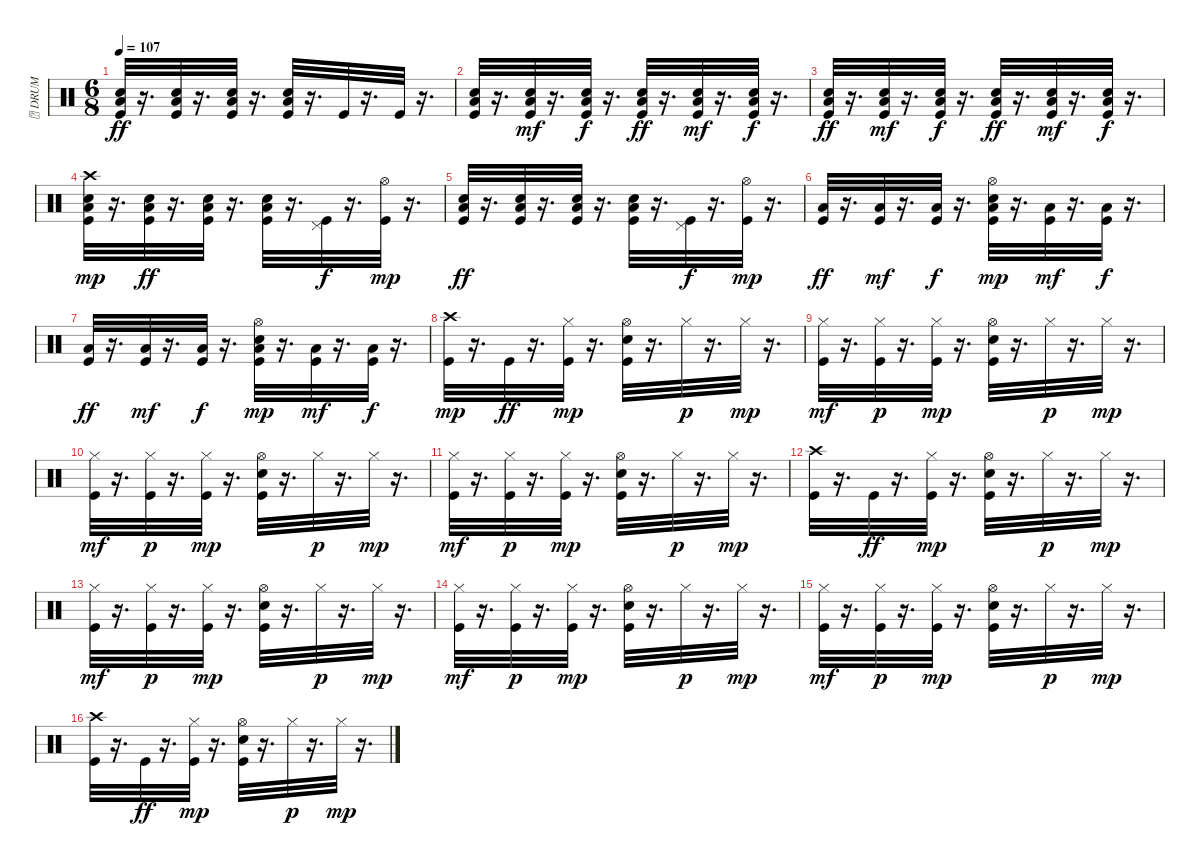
\track ("\t DRUM" "\t DRUM") {instrument percussion}
\staff {score}
\articulation defaults
\ts (6 8)
\tempo 107
\clef neutral
\ks c
("Kick (hit)" "Electric Snare (hit)" "Low Floor Tom (hit)").32{dy ff} r.16{d} ("Kick (hit)" "Electric Snare (hit)" "Low Floor Tom (hit)").32 r.16{d} ("Kick (hit)" "Electric Snare (hit)" "Low Floor Tom (hit)").32 r.16{d} ("Kick (hit)" "Electric Snare (hit)" "Low Floor Tom (hit)").32 r.16{d} "Kick (hit)".32 r.16{d} "Kick (hit)".32 r.16{d} |
("Kick (hit)" "Electric Snare (hit)" "Low Floor Tom (hit)").32 r.16{d} ("Kick (hit)" "Electric Snare (hit)" "Low Floor Tom (hit)").32{dy mf} r.16{d} ("Kick (hit)" "Electric Snare (hit)" "Low Floor Tom (hit)").32{dy f} r.16{d} ("Kick (hit)" "Electric Snare (hit)" "Low Floor Tom (hit)").32{dy ff} r.16{d} ("Kick (hit)" "Electric Snare (hit)" "Low Floor Tom (hit)").32{dy mf} r.16{d} ("Kick (hit)" "Electric Snare (hit)" "Low Floor Tom (hit)").32{dy f} r.16{d} |
("Kick (hit)" "Electric Snare (hit)" "Low Floor Tom (hit)").32{dy ff} r.16{d} ("Kick (hit)" "Electric Snare (hit)" "Low Floor Tom (hit)").32{dy mf} r.16{d} ("Kick (hit)" "Electric Snare (hit)" "Low Floor Tom (hit)").32{dy f} r.16{d} ("Kick (hit)" "Electric Snare (hit)" "Low Floor Tom (hit)").32{dy ff} r.16{d} ("Kick (hit)" "Electric Snare (hit)" "Low Floor Tom (hit)").32{dy mf} r.16{d} ("Kick (hit)" "Electric Snare (hit)" "Low Floor Tom (hit)").32{dy f} r.16{d} |
("Kick (hit)" "Electric Snare (hit)" "Low Floor Tom (hit)" "Crash high (hit)").32{dy mp} r.16{d} ("Kick (hit)" "Electric Snare (hit)" "Low Floor Tom (hit)").32{dy ff} r.16{d} ("Kick (hit)" "Electric Snare (hit)" "Low Floor Tom (hit)").32 r.16{d} ("Kick (hit)" "Electric Snare (hit)" "Low Floor Tom (hit)").32 r.16{d} ("Kick (hit)" "Pedal Hi-Hat (hit)").32{dy f} r.16{d} ("Kick (hit)" "Hi-Hat (open)").32{dy mp} r.16{d} |
("Kick (hit)" "Electric Snare (hit)" "Low Floor Tom (hit)").32{dy ff} r.16{d} ("Kick (hit)" "Electric Snare (hit)" "Low Floor Tom (hit)").32 r.16{d} ("Kick (hit)" "Electric Snare (hit)" "Low Floor Tom (hit)").32 r.16{d} ("Kick (hit)" "Electric Snare (hit)" "Low Floor Tom (hit)").32 r.16{d} ("Kick (hit)" "Pedal Hi-Hat (hit)").32{dy f} r.16{d} ("Kick (hit)" "Hi-Hat (open)").32{dy mp} r.16{d} |
("Kick (hit)" "Low Floor Tom (hit)").32{dy ff} r.16{d} ("Kick (hit)" "Low Floor Tom (hit)").32{dy mf} r.16{d} ("Kick (hit)" "Low Floor Tom (hit)").32{dy f} r.16{d} ("Kick (hit)" "Electric Snare (hit)" "Low Floor Tom (hit)" "Hi-Hat (open)").32{dy mp} r.16{d} ("Kick (hit)" "Low Floor Tom (hit)").32{dy mf} r.16{d} ("Kick (hit)" "Low Floor Tom (hit)").32{dy f} r.16{d} |
("Kick (hit)" "Low Floor Tom (hit)").32{dy ff} r.16{d} ("Kick (hit)" "Low Floor Tom (hit)").32{dy mf} r.16{d} ("Kick (hit)" "Low Floor Tom (hit)").32{dy f} r.16{d} ("Kick (hit)" "Electric Snare (hit)" "Low Floor Tom (hit)" "Hi-Hat (open)").32{dy mp} r.16{d} ("Kick (hit)" "Low Floor Tom (hit)").32{dy mf} r.16{d} ("Kick (hit)" "Low Floor Tom (hit)").32{dy f} r.16{d} |
("Kick (hit)" "Crash high (hit)").32{dy mp} r.16{d} "Kick (hit)".32{dy ff} r.16{d} ("Kick (hit)" "Hi-Hat (closed)").32{dy mp} r.16{d} ("Kick (hit)" "Electric Snare (hit)" "Hi-Hat (open)").32 r.16{d} "Hi-Hat (closed)".32{dy p} r.16{d} "Hi-Hat (closed)".32{dy mp} r.16{d} |
("Kick (hit)" "Hi-Hat (closed)").32{dy mf} r.16{d} ("Kick (hit)" "Hi-Hat (closed)").32{dy p} r.16{d} ("Kick (hit)" "Hi-Hat (closed)").32{dy mp} r.16{d} ("Kick (hit)" "Electric Snare (hit)" "Hi-Hat (open)").32 r.16{d} "Hi-Hat (closed)".32{dy p} r.16{d} "Hi-Hat (closed)".32{dy mp} r.16{d} |
("Kick (hit)" "Hi-Hat (closed)").32{dy mf} r.16{d} ("Kick (hit)" "Hi-Hat (closed)").32{dy p} r.16{d} ("Kick (hit)" "Hi-Hat (closed)").32{dy mp} r.16{d} ("Kick (hit)" "Electric Snare (hit)" "Hi-Hat (open)").32 r.16{d} "Hi-Hat (closed)".32{dy p} r.16{d} "Hi-Hat (closed)".32{dy mp} r.16{d} |
("Kick (hit)" "Hi-Hat (closed)").32{dy mf} r.16{d} ("Kick (hit)" "Hi-Hat (closed)").32{dy p} r.16{d} ("Kick (hit)" "Hi-Hat (closed)").32{dy mp} r.16{d} ("Kick (hit)" "Electric Snare (hit)" "Hi-Hat (open)").32 r.16{d} "Hi-Hat (closed)".32{dy p} r.16{d} "Hi-Hat (closed)".32{dy mp} r.16{d} |
("Kick (hit)" "Crash high (hit)").32 r.16{d} "Kick (hit)".32{dy ff} r.16{d} ("Kick (hit)" "Hi-Hat (closed)").32{dy mp} r.16{d} ("Kick (hit)" "Electric Snare (hit)" "Hi-Hat (open)").32 r.16{d} "Hi-Hat (closed)".32{dy p} r.16{d} "Hi-Hat (closed)".32{dy mp} r.16{d} |
("Kick (hit)" "Hi-Hat (closed)").32{dy mf} r.16{d} ("Kick (hit)" "Hi-Hat (closed)").32{dy p} r.16{d} ("Kick (hit)" "Hi-Hat (closed)").32{dy mp} r.16{d} ("Kick (hit)" "Electric Snare (hit)" "Hi-Hat (open)").32 r.16{d} "Hi-Hat (closed)".32{dy p} r.16{d} "Hi-Hat (closed)".32{dy mp} r.16{d} |
("Kick (hit)" "Hi-Hat (closed)").32{dy mf} r.16{d} ("Kick (hit)" "Hi-Hat (closed)").32{dy p} r.16{d} ("Kick (hit)" "Hi-Hat (closed)").32{dy mp} r.16{d} ("Kick (hit)" "Electric Snare (hit)" "Hi-Hat (open)").32 r.16{d} "Hi-Hat (closed)".32{dy p} r.16{d} "Hi-Hat (closed)".32{dy mp} r.16{d} |
("Kick (hit)" "Hi-Hat (closed)").32{dy mf} r.16{d} ("Kick (hit)" "Hi-Hat (closed)").32{dy p} r.16{d} ("Kick (hit)" "Hi-Hat (closed)").32{dy mp} r.16{d} ("Kick (hit)" "Electric Snare (hit)" "Hi-Hat (open)").32 r.16{d} "Hi-Hat (closed)".32{dy p} r.16{d} "Hi-Hat (closed)".32{dy mp} r.16{d} |
("Kick (hit)" "Crash high (hit)").32 r.16{d} "Kick (hit)".32{dy ff} r.16{d} ("Kick (hit)" "Hi-Hat (closed)").32{dy mp} r.16{d} ("Kick (hit)" "Electric Snare (hit)" "Hi-Hat (open)").32 r.16{d} "Hi-Hat (closed)".32{dy p} r.16{d} "Hi-Hat (closed)".32{dy mp} r.16{d}
